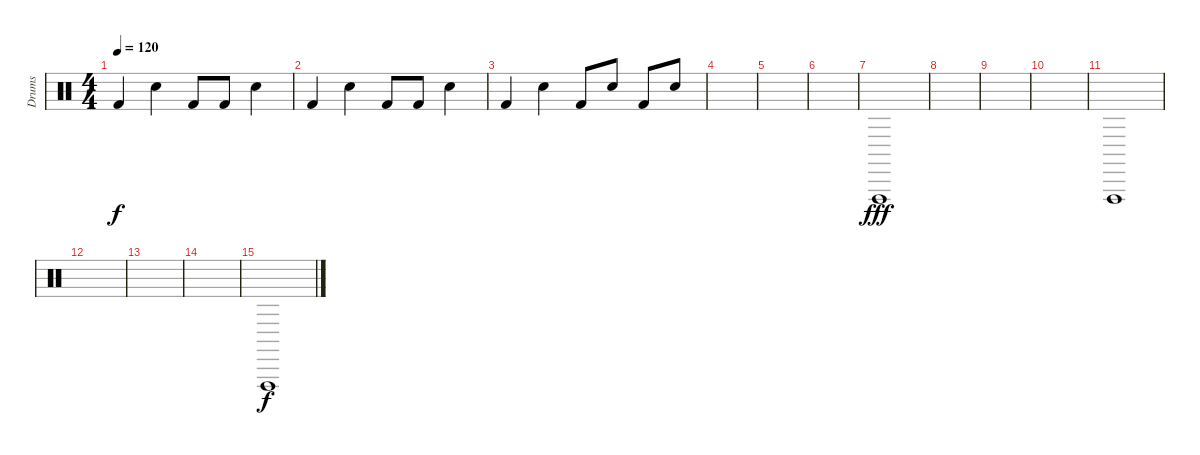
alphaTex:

\track ("Drums" "Drums") {instrument percussion}
\staff {score}
\articulation defaults
\ts (4 4)
\tempo 120
\clef neutral
\ks c "Kick (hit) 2".4{dy f} "Snare (hit) 2".4 "Kick (hit) 2".8 "Kick (hit) 2".8 "Snare (hit) 2".4
|
"Kick (hit) 2".4 "Snare (hit) 2".4 "Kick (hit) 2".8 "Kick (hit) 2".8 "Snare (hit) 2".4 |
"Kick (hit) 2".4 "Snare (hit) 2".4 "Kick (hit) 2".8 "Snare (hit) 2".8 "Kick (hit) 2".8 "Snare (hit) 2".8 |
|
|
|
"Vibraslap (hit)".1{dy fff} |
|
|
|
"Vibraslap (hit)".1 |
|
|
|
"Vibraslap (hit)".1{dy f}
